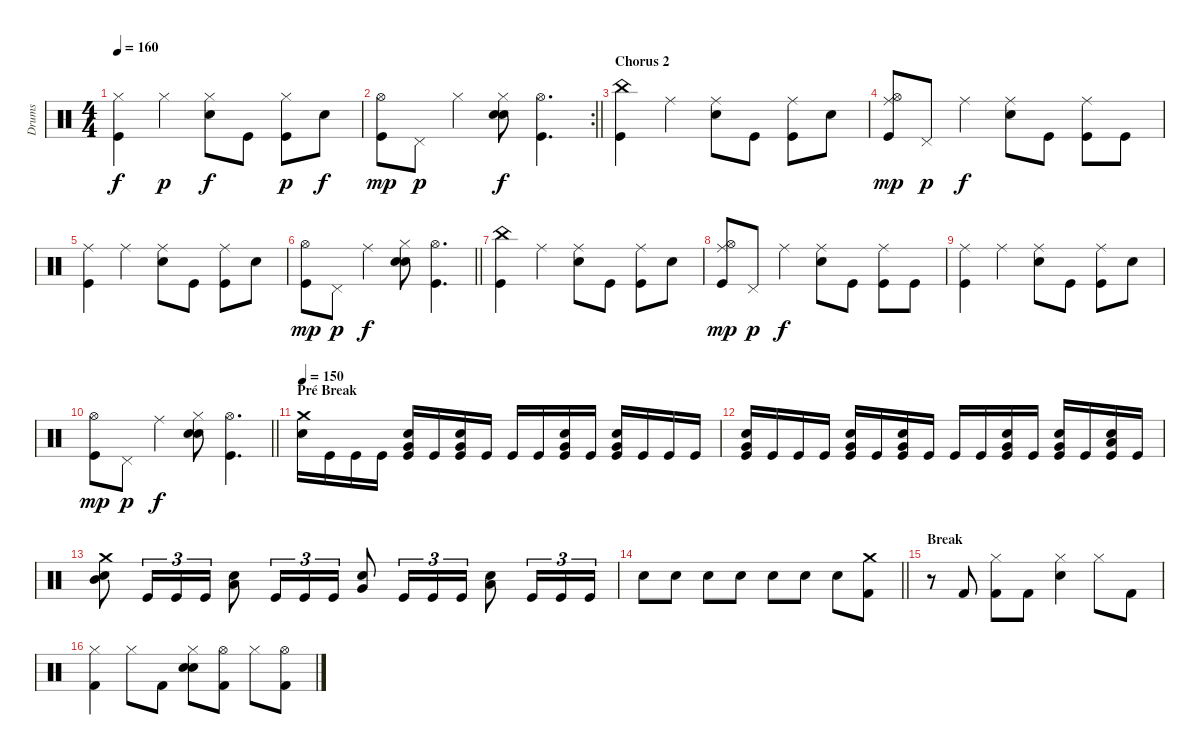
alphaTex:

\track ("Drums" "Drums") {instrument percussion}
\staff {score}
\articulation defaults
\ts (4 4)
\tempo 160
\clef neutral
\ks c
("Hi-Hat (closed)" "Kick (hit)").4{dy f} "Hi-Hat (closed)".4{dy p} ("Hi-Hat (closed)" "Electric Snare (hit)").8{dy f} "Kick (hit)".8 ("Hi-Hat (closed)" "Kick (hit)").8{dy p} "Electric Snare (hit)".8{dy f} |
\rc 2
\barLineRight lightlight
("Hi-Hat (open)" "Kick (hit)").8{dy mp} "Pedal Hi-Hat (hit)".8{dy p} "Hi-Hat (closed)".4 ("Hi-Hat (closed)" "Electric Snare (hit)" "Electric Snare (hit)").8{bd 480 dy f} ("Hi-Hat (open)" "Kick (hit)").4{d} |
\section ("" "Chorus 2")
("China (hit)" "Kick (hit)").4 "Ride (middle)".4 ("Ride (middle)" "Electric Snare (hit)").8 "Kick (hit)".8 ("Ride (middle)" "Kick (hit)").8 "Electric Snare (hit)".8 |
("Hi-Hat (open)" "Ride (middle)" "Kick (hit)").8{dy mp} "Pedal Hi-Hat (hit)".8{dy p} "Ride (middle)".4{dy f} ("Ride (middle)" "Electric Snare (hit)").8 "Kick (hit)".8 ("Ride (middle)" "Kick (hit)").8 "Kick (hit)".8 |
("Ride (middle)" "Kick (hit)").4 "Ride (middle)".4 ("Ride (middle)" "Electric Snare (hit)").8 "Kick (hit)".8 ("Ride (middle)" "Kick (hit)").8 "Electric Snare (hit)".8 |
\barLineRight lightlight
("Hi-Hat (open)" "Kick (hit)").8{dy mp} "Pedal Hi-Hat (hit)".8{dy p} "Ride (middle)".4{dy f} ("Hi-Hat (closed)" "Electric Snare (hit)" "Electric Snare (hit)").8{bd 480} ("Hi-Hat (open)" "Kick (hit)").4{d} |
("China (hit)" "Kick (hit)").4 "Ride (middle)".4 ("Ride (middle)" "Electric Snare (hit)").8 "Kick (hit)".8 ("Ride (middle)" "Kick (hit)").8 "Electric Snare (hit)".8 |
("Hi-Hat (open)" "Ride (middle)" "Kick (hit)").8{dy mp} "Pedal Hi-Hat (hit)".8{dy p} "Ride (middle)".4{dy f} ("Ride (middle)" "Electric Snare (hit)").8 "Kick (hit)".8 ("Ride (middle)" "Kick (hit)").8 "Kick (hit)".8 |
("Ride (middle)" "Kick (hit)").4 "Ride (middle)".4 ("Ride (middle)" "Electric Snare (hit)").8 "Kick (hit)".8 ("Ride (middle)" "Kick (hit)").8 "Electric Snare (hit)".8 |
\barLineRight lightlight
("Hi-Hat (open)" "Kick (hit)").8{dy mp} "Pedal Hi-Hat (hit)".8{dy p} "Ride (middle)".4{dy f} ("Hi-Hat (closed)" "Electric Snare (hit)" "Electric Snare (hit)").8{bd 480} ("Hi-Hat (open)" "Kick (hit)").4{d} |
\section ("" "Pré Break")
\tempo 150
("Crash medium (hit)" "Electric Snare (hit)").16 "Kick (hit)".16 "Kick (hit)".16 "Kick (hit)".16 ("Electric Snare (hit)" "Very Low Tom (hit)" "Kick (hit)").16 "Kick (hit)".16 ("Electric Snare (hit)" "Very Low Tom (hit)" "Kick (hit)").16 "Kick (hit)".16 "Kick (hit)".16 "Kick (hit)".16 ("Electric Snare (hit)" "Very Low Tom (hit)" "Kick (hit)").16 "Kick (hit)".16 ("Electric Snare (hit)" "Very Low Tom (hit)" "Kick (hit)").16 "Kick (hit)".16 "Kick (hit)".16 "Kick (hit)".16 |
("Electric Snare (hit)" "Very Low Tom (hit)" "Kick (hit)").16 "Kick (hit)".16 "Kick (hit)".16 "Kick (hit)".16 ("Electric Snare (hit)" "Very Low Tom (hit)" "Kick (hit)").16 "Kick (hit)".16 ("Electric Snare (hit)" "Very Low Tom (hit)" "Kick (hit)").16 "Kick (hit)".16 "Kick (hit)".16 "Kick (hit)".16 ("Electric Snare (hit)" "Very Low Tom (hit)" "Kick (hit)").16 "Kick (hit)".16 ("Electric Snare (hit)" "Very Low Tom (hit)" "Kick (hit)").16 "Kick (hit)".16 ("Low Tom (hit)" "Electric Snare (hit)" "Kick (hit)").16 "Kick (hit)".16 |
("Crash medium (hit)" "Electric Snare (hit)" "Mid Tom (hit)").8 "Kick (hit)".16{tu (3 2)} "Kick (hit)".16{tu (3 2)} "Kick (hit)".16{tu (3 2)} ("Electric Snare (hit)" "Low Tom (hit)").8 "Kick (hit)".16{tu (3 2)} "Kick (hit)".16{tu (3 2)} "Kick (hit)".16{tu (3 2)} ("Electric Snare (hit)" "Very Low Tom (hit)").8 "Kick (hit)".16{tu (3 2)} "Kick (hit)".16{tu (3 2)} "Kick (hit)".16{tu (3 2)} ("Electric Snare (hit)" "Low Floor Tom (hit)").8 "Kick (hit)".16{tu (3 2)} "Kick (hit)".16{tu (3 2)} "Kick (hit)".16{tu (3 2)} |
\barLineRight lightlight "Electric Snare (hit)".8 "Electric Snare (hit)".8 "Electric Snare (hit)".8 "Electric Snare (hit)".8 "Electric Snare (hit)".8 "Electric Snare (hit)".8 "Electric Snare (hit)".8
("Crash medium (hit)" "Kick (hit) 2").8 |
\section ("" "Break")
r.8 "Kick (hit) 2".8 ("Hi-Hat (closed)" "Kick (hit) 2").8 "Kick (hit) 2".8 ("Hi-Hat (closed)" "Electric Snare (hit)").4 "Hi-Hat (closed)".8 "Kick (hit) 2".8 |
("Hi-Hat (closed)" "Kick (hit) 2").4 "Hi-Hat (closed)".8 "Kick (hit) 2".8 ("Hi-Hat (closed)" "Electric Snare (hit)" "Electric Snare (hit)").8{bd 480} ("Hi-Hat (open)" "Kick (hit) 2").8 "Hi-Hat (closed)".8 ("Hi-Hat (open)" "Kick (hit) 2").8
